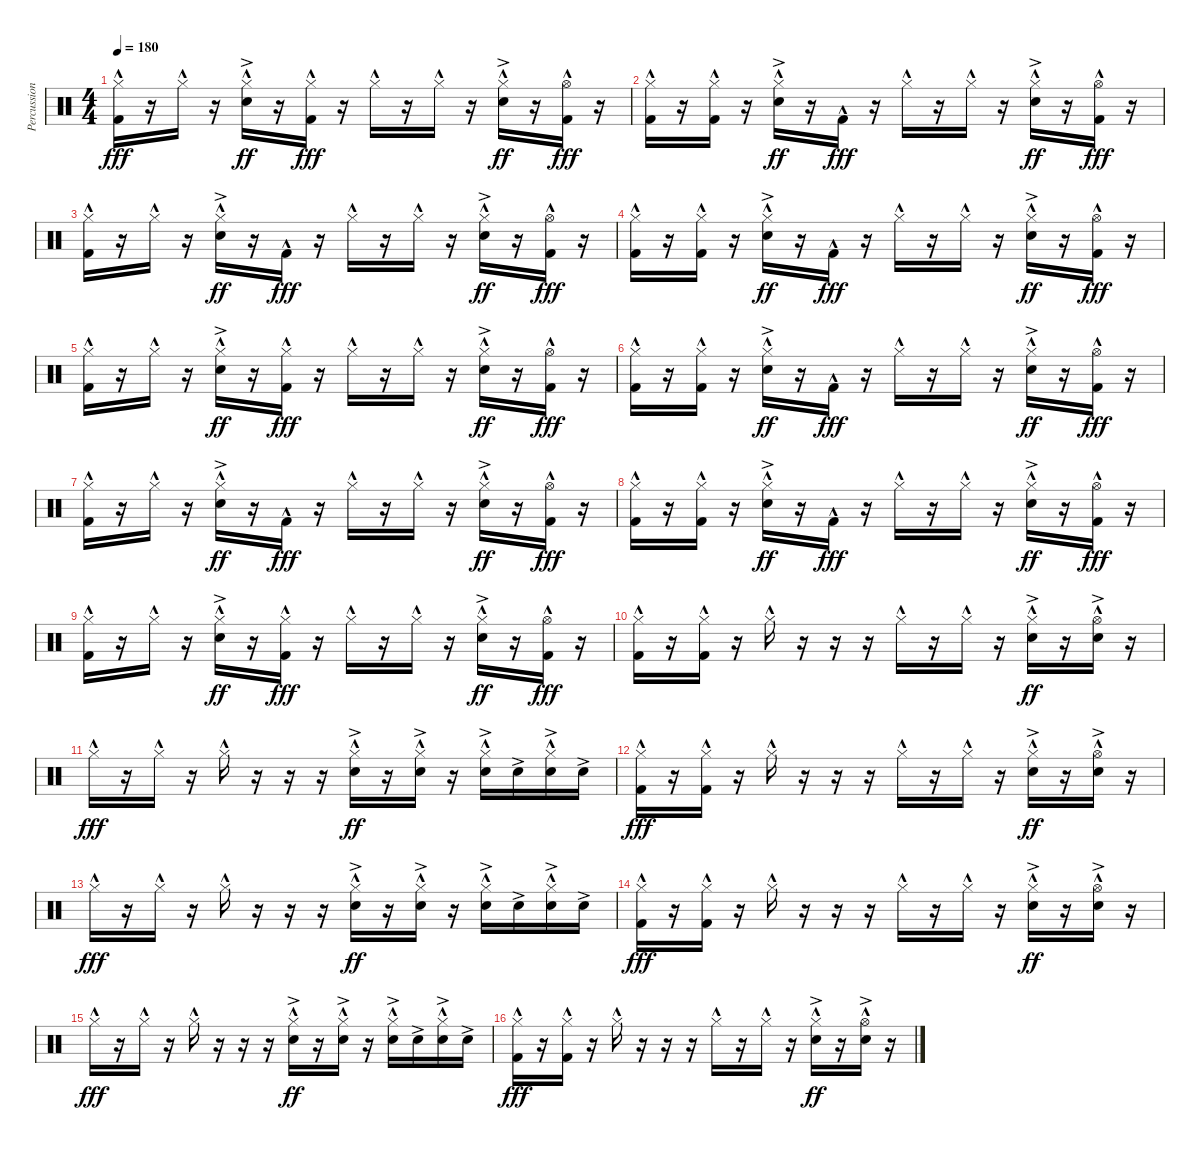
\track ("Percussion" "Percussion") {instrument percussion}
\staff {score}
\articulation defaults
\ts (4 4)
\tempo 180
\clef neutral
\ks c
("Hi-Hat (closed)"{hac} "Kick (hit) 2"{hac}).16{dy fff} r.16 "Hi-Hat (closed)"{hac}.16 r.16 ("Hi-Hat (closed)"{hac} "Snare (hit) 2"{ac}).16{dy ff} r.16 ("Hi-Hat (closed)"{hac} "Kick (hit) 2"{hac}).16{dy fff} r.16 "Hi-Hat (closed)"{hac}.16 r.16 "Hi-Hat (closed)"{hac}.16 r.16 ("Hi-Hat (closed)"{hac} "Snare (hit) 2"{ac}).16{dy ff} r.16 ("Hi-Hat (open)"{hac} "Kick (hit) 2"{hac}).16{dy fff} r.16 |
("Hi-Hat (closed)"{hac} "Kick (hit) 2"{hac}).16 r.16 ("Hi-Hat (closed)"{hac} "Kick (hit) 2"{hac}).16 r.16 ("Hi-Hat (closed)"{hac} "Snare (hit) 2"{ac}).16{dy ff} r.16 "Kick (hit) 2"{hac}.16{dy fff} r.16 "Hi-Hat (closed)"{hac}.16 r.16 "Hi-Hat (closed)"{hac}.16 r.16 ("Hi-Hat (closed)"{hac} "Snare (hit) 2"{ac}).16{dy ff} r.16 ("Hi-Hat (open)"{hac} "Kick (hit) 2"{hac}).16{dy fff} r.16 |
("Hi-Hat (closed)"{hac} "Kick (hit) 2"{hac}).16 r.16 "Hi-Hat (closed)"{hac}.16 r.16 ("Hi-Hat (closed)"{hac} "Snare (hit) 2"{ac}).16{dy ff} r.16 "Kick (hit) 2"{hac}.16{dy fff} r.16 "Hi-Hat (closed)"{hac}.16 r.16 "Hi-Hat (closed)"{hac}.16 r.16 ("Hi-Hat (closed)"{hac} "Snare (hit) 2"{ac}).16{dy ff} r.16 ("Hi-Hat (open)"{hac} "Kick (hit) 2"{hac}).16{dy fff} r.16 |
("Hi-Hat (closed)"{hac} "Kick (hit) 2"{hac}).16 r.16 ("Hi-Hat (closed)"{hac} "Kick (hit) 2"{hac}).16 r.16 ("Hi-Hat (closed)"{hac} "Snare (hit) 2"{ac}).16{dy ff} r.16 "Kick (hit) 2"{hac}.16{dy fff} r.16 "Hi-Hat (closed)"{hac}.16 r.16 "Hi-Hat (closed)"{hac}.16 r.16 ("Hi-Hat (closed)"{hac} "Snare (hit) 2"{ac}).16{dy ff} r.16 ("Hi-Hat (open)"{hac} "Kick (hit) 2"{hac}).16{dy fff} r.16 |
("Hi-Hat (closed)"{hac} "Kick (hit) 2"{hac}).16 r.16 "Hi-Hat (closed)"{hac}.16 r.16 ("Hi-Hat (closed)"{hac} "Snare (hit) 2"{ac}).16{dy ff} r.16 ("Hi-Hat (closed)"{hac} "Kick (hit) 2"{hac}).16{dy fff} r.16 "Hi-Hat (closed)"{hac}.16 r.16 "Hi-Hat (closed)"{hac}.16 r.16 ("Hi-Hat (closed)"{hac} "Snare (hit) 2"{ac}).16{dy ff} r.16 ("Hi-Hat (open)"{hac} "Kick (hit) 2"{hac}).16{dy fff} r.16 |
("Hi-Hat (closed)"{hac} "Kick (hit) 2"{hac}).16 r.16 ("Hi-Hat (closed)"{hac} "Kick (hit) 2"{hac}).16 r.16 ("Hi-Hat (closed)"{hac} "Snare (hit) 2"{ac}).16{dy ff} r.16 "Kick (hit) 2"{hac}.16{dy fff} r.16 "Hi-Hat (closed)"{hac}.16 r.16 "Hi-Hat (closed)"{hac}.16 r.16 ("Hi-Hat (closed)"{hac} "Snare (hit) 2"{ac}).16{dy ff} r.16 ("Hi-Hat (open)"{hac} "Kick (hit) 2"{hac}).16{dy fff} r.16 |
("Hi-Hat (closed)"{hac} "Kick (hit) 2"{hac}).16 r.16 "Hi-Hat (closed)"{hac}.16 r.16 ("Hi-Hat (closed)"{hac} "Snare (hit) 2"{ac}).16{dy ff} r.16 "Kick (hit) 2"{hac}.16{dy fff} r.16 "Hi-Hat (closed)"{hac}.16 r.16 "Hi-Hat (closed)"{hac}.16 r.16 ("Hi-Hat (closed)"{hac} "Snare (hit) 2"{ac}).16{dy ff} r.16 ("Hi-Hat (open)"{hac} "Kick (hit) 2"{hac}).16{dy fff} r.16 |
("Hi-Hat (closed)"{hac} "Kick (hit) 2"{hac}).16 r.16 ("Hi-Hat (closed)"{hac} "Kick (hit) 2"{hac}).16 r.16 ("Hi-Hat (closed)"{hac} "Snare (hit) 2"{ac}).16{dy ff} r.16 "Kick (hit) 2"{hac}.16{dy fff} r.16 "Hi-Hat (closed)"{hac}.16 r.16 "Hi-Hat (closed)"{hac}.16 r.16 ("Hi-Hat (closed)"{hac} "Snare (hit) 2"{ac}).16{dy ff} r.16 ("Hi-Hat (open)"{hac} "Kick (hit) 2"{hac}).16{dy fff} r.16 |
("Hi-Hat (closed)"{hac} "Kick (hit) 2"{hac}).16 r.16 "Hi-Hat (closed)"{hac}.16 r.16 ("Hi-Hat (closed)"{hac} "Snare (hit) 2"{ac}).16{dy ff} r.16 ("Hi-Hat (closed)"{hac} "Kick (hit) 2"{hac}).16{dy fff} r.16 "Hi-Hat (closed)"{hac}.16 r.16 "Hi-Hat (closed)"{hac}.16 r.16 ("Hi-Hat (closed)"{hac} "Snare (hit) 2"{ac}).16{dy ff} r.16 ("Hi-Hat (open)"{hac} "Kick (hit) 2"{hac}).16{dy fff} r.16 |
("Hi-Hat (closed)"{hac} "Kick (hit) 2"{hac}).16 r.16 ("Hi-Hat (closed)"{hac} "Kick (hit) 2"{hac}).16 r.16 "Hi-Hat (closed)"{hac}.16 r.16 r.16 r.16 "Hi-Hat (closed)"{hac}.16 r.16 "Hi-Hat (closed)"{hac}.16 r.16 ("Hi-Hat (closed)"{hac} "Snare (hit) 2"{ac}).16{dy ff} r.16 ("Hi-Hat (open)"{hac} "Snare (hit) 2"{ac}).16 r.16 |
"Hi-Hat (closed)"{hac}.16{dy fff} r.16 "Hi-Hat (closed)"{hac}.16 r.16 "Hi-Hat (closed)"{hac}.16 r.16 r.16 r.16 ("Hi-Hat (closed)"{hac} "Snare (hit) 2"{ac}).16{dy ff} r.16 ("Hi-Hat (closed)"{hac} "Snare (hit) 2"{ac}).16 r.16 ("Hi-Hat (closed)"{hac} "Snare (hit) 2"{ac}).16 "Snare (hit) 2"{ac}.16 ("Hi-Hat (closed)"{hac} "Snare (hit) 2"{ac}).16 "Snare (hit) 2"{ac}.16 |
("Hi-Hat (closed)"{hac} "Kick (hit) 2"{hac}).16{dy fff} r.16 ("Hi-Hat (closed)"{hac} "Kick (hit) 2"{hac}).16 r.16 "Hi-Hat (closed)"{hac}.16 r.16 r.16 r.16 "Hi-Hat (closed)"{hac}.16 r.16 "Hi-Hat (closed)"{hac}.16 r.16 ("Hi-Hat (closed)"{hac} "Snare (hit) 2"{ac}).16{dy ff} r.16 ("Hi-Hat (open)"{hac} "Snare (hit) 2"{ac}).16 r.16 |
"Hi-Hat (closed)"{hac}.16{dy fff} r.16 "Hi-Hat (closed)"{hac}.16 r.16 "Hi-Hat (closed)"{hac}.16 r.16 r.16 r.16 ("Hi-Hat (closed)"{hac} "Snare (hit) 2"{ac}).16{dy ff} r.16 ("Hi-Hat (closed)"{hac} "Snare (hit) 2"{ac}).16 r.16 ("Hi-Hat (closed)"{hac} "Snare (hit) 2"{ac}).16 "Snare (hit) 2"{ac}.16 ("Hi-Hat (closed)"{hac} "Snare (hit) 2"{ac}).16 "Snare (hit) 2"{ac}.16 |
("Hi-Hat (closed)"{hac} "Kick (hit) 2"{hac}).16{dy fff} r.16 ("Hi-Hat (closed)"{hac} "Kick (hit) 2"{hac}).16 r.16 "Hi-Hat (closed)"{hac}.16 r.16 r.16 r.16 "Hi-Hat (closed)"{hac}.16 r.16 "Hi-Hat (closed)"{hac}.16 r.16 ("Hi-Hat (closed)"{hac} "Snare (hit) 2"{ac}).16{dy ff} r.16 ("Hi-Hat (open)"{hac} "Snare (hit) 2"{ac}).16 r.16 |
"Hi-Hat (closed)"{hac}.16{dy fff} r.16 "Hi-Hat (closed)"{hac}.16 r.16 "Hi-Hat (closed)"{hac}.16 r.16 r.16 r.16 ("Hi-Hat (closed)"{hac} "Snare (hit) 2"{ac}).16{dy ff} r.16 ("Hi-Hat (closed)"{hac} "Snare (hit) 2"{ac}).16 r.16 ("Hi-Hat (closed)"{hac} "Snare (hit) 2"{ac}).16 "Snare (hit) 2"{ac}.16 ("Hi-Hat (closed)"{hac} "Snare (hit) 2"{ac}).16 "Snare (hit) 2"{ac}.16 |
("Hi-Hat (closed)"{hac} "Kick (hit) 2"{hac}).16{dy fff} r.16 ("Hi-Hat (closed)"{hac} "Kick (hit) 2"{hac}).16 r.16 "Hi-Hat (closed)"{hac}.16 r.16 r.16 r.16 "Hi-Hat (closed)"{hac}.16 r.16 "Hi-Hat (closed)"{hac}.16 r.16 ("Hi-Hat (closed)"{hac} "Snare (hit) 2"{ac}).16{dy ff} r.16 ("Hi-Hat (open)"{hac} "Snare (hit) 2"{ac}).16 r.16
